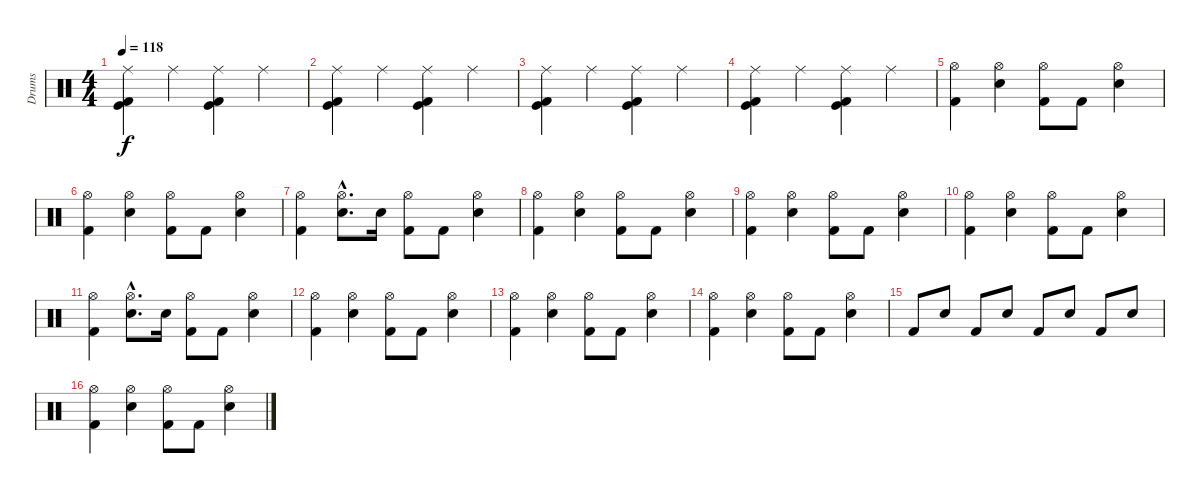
\track ("Drums" "Drums") {instrument percussion}
\staff {score}
\articulation defaults
\ts (4 4)
\tempo 118
\clef neutral
\ks c
("Ride (middle)" "Kick (hit)" "Kick (hit) 2").4{dy f} "Ride (middle)".4 ("Ride (middle)" "Kick (hit)" "Kick (hit) 2").4 "Ride (middle)".4 |
("Ride (middle)" "Kick (hit)" "Kick (hit) 2").4 "Ride (middle)".4 ("Ride (middle)" "Kick (hit)" "Kick (hit) 2").4 "Ride (middle)".4 |
("Ride (middle)" "Kick (hit)" "Kick (hit) 2").4 "Ride (middle)".4 ("Ride (middle)" "Kick (hit)" "Kick (hit) 2").4 "Ride (middle)".4 |
("Ride (middle)" "Kick (hit)" "Kick (hit) 2").4 "Ride (middle)".4 ("Ride (middle)" "Kick (hit)" "Kick (hit) 2").4 "Ride (middle)".4 |
("Hi-Hat (open)" "Kick (hit) 2").4 ("Hi-Hat (open)" "Electric Snare (hit)").4 ("Hi-Hat (open)" "Kick (hit) 2").8 "Kick (hit) 2".8 ("Hi-Hat (open)" "Electric Snare (hit)").4 |
("Hi-Hat (open)" "Kick (hit) 2").4 ("Hi-Hat (open)" "Electric Snare (hit)").4 ("Hi-Hat (open)" "Kick (hit) 2").8 "Kick (hit) 2".8 ("Hi-Hat (open)" "Electric Snare (hit)").4 |
("Hi-Hat (open)" "Kick (hit) 2").4 ("Hi-Hat (open)"{hac} "Electric Snare (hit)"{hac}).8{d} "Electric Snare (hit)".16 ("Hi-Hat (open)" "Kick (hit) 2").8 "Kick (hit) 2".8 ("Hi-Hat (open)" "Electric Snare (hit)").4 |
("Hi-Hat (open)" "Kick (hit) 2").4 ("Hi-Hat (open)" "Electric Snare (hit)").4 ("Hi-Hat (open)" "Kick (hit) 2").8 "Kick (hit) 2".8 ("Hi-Hat (open)" "Electric Snare (hit)").4 |
("Hi-Hat (open)" "Kick (hit) 2").4 ("Hi-Hat (open)" "Electric Snare (hit)").4 ("Hi-Hat (open)" "Kick (hit) 2").8 "Kick (hit) 2".8 ("Hi-Hat (open)" "Electric Snare (hit)").4 |
("Hi-Hat (open)" "Kick (hit) 2").4 ("Hi-Hat (open)" "Electric Snare (hit)").4 ("Hi-Hat (open)" "Kick (hit) 2").8 "Kick (hit) 2".8 ("Hi-Hat (open)" "Electric Snare (hit)").4 |
("Hi-Hat (open)" "Kick (hit) 2").4 ("Hi-Hat (open)"{hac} "Electric Snare (hit)"{hac}).8{d} "Electric Snare (hit)".16 ("Hi-Hat (open)" "Kick (hit) 2").8 "Kick (hit) 2".8 ("Hi-Hat (open)" "Electric Snare (hit)").4 |
("Hi-Hat (open)" "Kick (hit) 2").4 ("Hi-Hat (open)" "Electric Snare (hit)").4 ("Hi-Hat (open)" "Kick (hit) 2").8 "Kick (hit) 2".8 ("Hi-Hat (open)" "Electric Snare (hit)").4 |
("Hi-Hat (open)" "Kick (hit) 2").4 ("Hi-Hat (open)" "Electric Snare (hit)").4 ("Hi-Hat (open)" "Kick (hit) 2").8 "Kick (hit) 2".8 ("Hi-Hat (open)" "Electric Snare (hit)").4 |
("Hi-Hat (open)" "Kick (hit) 2").4 ("Hi-Hat (open)" "Electric Snare (hit)").4 ("Hi-Hat (open)" "Kick (hit) 2").8 "Kick (hit) 2".8 ("Hi-Hat (open)" "Electric Snare (hit)").4 |
"Kick (hit) 2".8 "Electric Snare (hit)".8 "Kick (hit) 2".8 "Electric Snare (hit)".8 "Kick (hit) 2".8 "Electric Snare (hit)".8 "Kick (hit) 2".8 "Electric Snare (hit)".8 |
("Hi-Hat (open)" "Kick (hit) 2").4 ("Hi-Hat (open)" "Electric Snare (hit)").4 ("Hi-Hat (open)" "Kick (hit) 2").8 "Kick (hit) 2".8 ("Hi-Hat (open)" "Electric Snare (hit)").4
